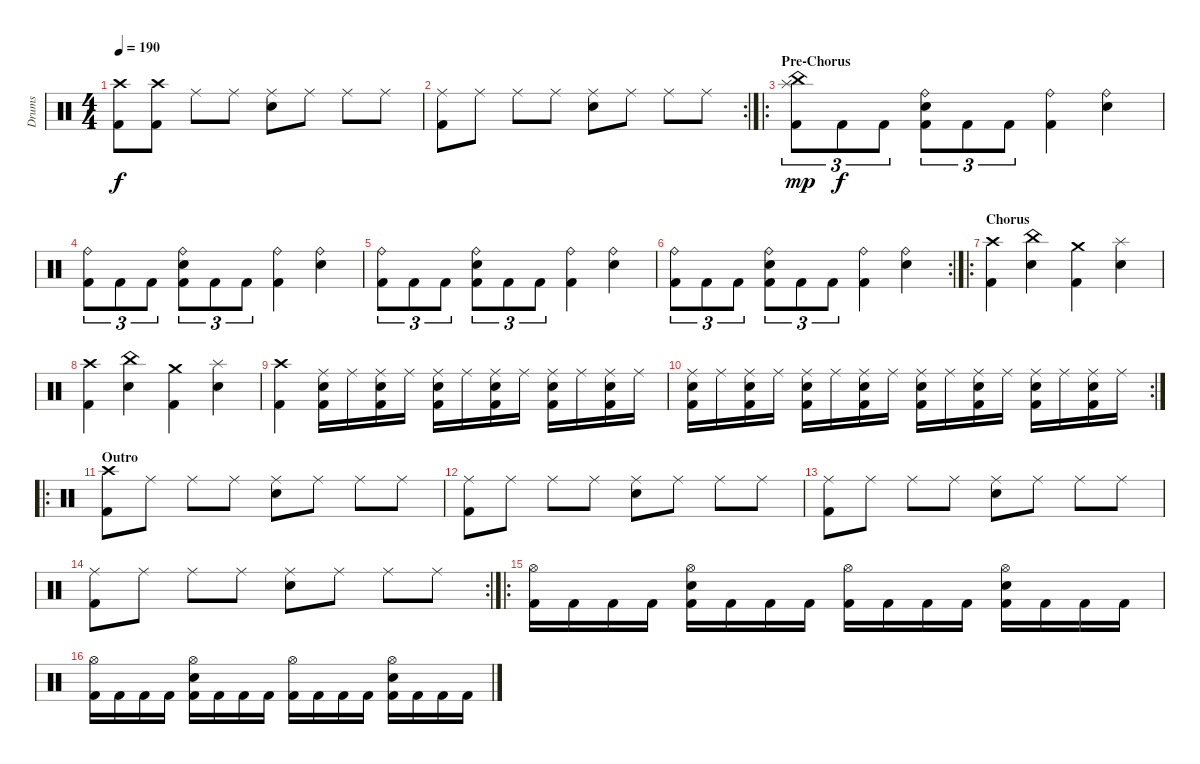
\track ("Drums" "Drums") {instrument percussion}
\staff {score}
\articulation defaults
\ts (4 4)
\tempo 190
\clef neutral
\ks c
("Crash high (hit)" "Kick (hit) 2").8{dy f} ("Crash high (hit)" "Kick (hit) 2").8 "Ride (middle)".8 "Ride (middle)".8 ("Ride (middle)" "Electric Snare (hit)").8 "Ride (middle)".8 "Ride (middle)".8 "Ride (middle)".8 |
\rc 2
("Ride (middle)" "Kick (hit) 2").8 "Ride (middle)".8 "Ride (middle)".8 "Ride (middle)".8 ("Ride (middle)" "Electric Snare (hit)").8 "Ride (middle)".8 "Ride (middle)".8 "Ride (middle)".8 |
\ro
\section ("" "Pre-Chorus")
("Kick (hit) 2" "China (hit)" "Splash (hit)").8{tu (3 2) dy mp} "Kick (hit) 2".8{tu (3 2) dy f} "Kick (hit) 2".8{tu (3 2)} ("Kick (hit) 2" "Ride (bell)" "Electric Snare (hit)").8{tu (3 2)} "Kick (hit) 2".8{tu (3 2)} "Kick (hit) 2".8{tu (3 2)} ("Ride (bell)" "Kick (hit) 2").4 ("Ride (bell)" "Electric Snare (hit)").4 |
("Kick (hit) 2" "Ride (bell)").8{tu (3 2)} "Kick (hit) 2".8{tu (3 2)} "Kick (hit) 2".8{tu (3 2)} ("Kick (hit) 2" "Ride (bell)" "Electric Snare (hit)").8{tu (3 2)} "Kick (hit) 2".8{tu (3 2)} "Kick (hit) 2".8{tu (3 2)} ("Ride (bell)" "Kick (hit) 2").4 ("Ride (bell)" "Electric Snare (hit)").4 |
("Kick (hit) 2" "Ride (bell)").8{tu (3 2)} "Kick (hit) 2".8{tu (3 2)} "Kick (hit) 2".8{tu (3 2)} ("Kick (hit) 2" "Ride (bell)" "Electric Snare (hit)").8{tu (3 2)} "Kick (hit) 2".8{tu (3 2)} "Kick (hit) 2".8{tu (3 2)} ("Ride (bell)" "Kick (hit) 2").4 ("Ride (bell)" "Electric Snare (hit)").4 |
\rc 2
("Kick (hit) 2" "Ride (bell)").8{tu (3 2)} "Kick (hit) 2".8{tu (3 2)} "Kick (hit) 2".8{tu (3 2)} ("Kick (hit) 2" "Ride (bell)" "Electric Snare (hit)").8{tu (3 2)} "Kick (hit) 2".8{tu (3 2)} "Kick (hit) 2".8{tu (3 2)} ("Ride (bell)" "Kick (hit) 2").4 ("Ride (bell)" "Electric Snare (hit)").4 |
\ro
\section ("" "Chorus")
("Crash high (hit)" "Kick (hit) 2").4 ("China (hit)" "Electric Snare (hit)").4 ("Crash medium (hit)" "Kick (hit) 2").4 ("Splash (hit)" "Electric Snare (hit)").4 |
("Crash high (hit)" "Kick (hit) 2").4 ("China (hit)" "Electric Snare (hit)").4 ("Crash medium (hit)" "Kick (hit) 2").4 ("Splash (hit)" "Electric Snare (hit)").4 |
("Crash high (hit)" "Kick (hit) 2").4 ("Ride (middle)" "Kick (hit) 2" "Electric Snare (hit)").16 "Ride (middle)".16 ("Ride (middle)" "Kick (hit) 2" "Electric Snare (hit)").16 "Ride (middle)".16 ("Ride (middle)" "Kick (hit) 2" "Electric Snare (hit)").16 "Ride (middle)".16 ("Ride (middle)" "Kick (hit) 2" "Electric Snare (hit)").16 "Ride (middle)".16 ("Ride (middle)" "Kick (hit) 2" "Electric Snare (hit)").16 "Ride (middle)".16 ("Ride (middle)" "Kick (hit) 2" "Electric Snare (hit)").16 "Ride (middle)".16 |
\rc 2
("Ride (middle)" "Kick (hit) 2" "Electric Snare (hit)").16 "Ride (middle)".16 ("Ride (middle)" "Kick (hit) 2" "Electric Snare (hit)").16 "Ride (middle)".16 ("Ride (middle)" "Kick (hit) 2" "Electric Snare (hit)").16 "Ride (middle)".16 ("Ride (middle)" "Kick (hit) 2" "Electric Snare (hit)").16 "Ride (middle)".16 ("Ride (middle)" "Kick (hit) 2" "Electric Snare (hit)").16 "Ride (middle)".16 ("Ride (middle)" "Kick (hit) 2" "Electric Snare (hit)").16 "Ride (middle)".16 ("Ride (middle)" "Kick (hit) 2" "Electric Snare (hit)").16 "Ride (middle)".16 ("Ride (middle)" "Kick (hit) 2" "Electric Snare (hit)").16 "Ride (middle)".16 |
\ro
\section ("" "Outro")
("Crash high (hit)" "Kick (hit) 2").8 "Ride (middle)".8 "Ride (middle)".8 "Ride (middle)".8 ("Ride (middle)" "Electric Snare (hit)").8 "Ride (middle)".8 "Ride (middle)".8 "Ride (middle)".8 |
("Ride (middle)" "Kick (hit) 2").8 "Ride (middle)".8 "Ride (middle)".8 "Ride (middle)".8 ("Ride (middle)" "Electric Snare (hit)").8 "Ride (middle)".8 "Ride (middle)".8 "Ride (middle)".8 |
("Ride (middle)" "Kick (hit) 2").8 "Ride (middle)".8 "Ride (middle)".8 "Ride (middle)".8 ("Ride (middle)" "Electric Snare (hit)").8 "Ride (middle)".8 "Ride (middle)".8 "Ride (middle)".8 |
\rc 2
("Ride (middle)" "Kick (hit) 2").8 "Ride (middle)".8 "Ride (middle)".8 "Ride (middle)".8 ("Ride (middle)" "Electric Snare (hit)").8 "Ride (middle)".8 "Ride (middle)".8 "Ride (middle)".8 |
\ro
("Kick (hit) 2" "Hi-Hat (open)").16 "Kick (hit) 2".16 "Kick (hit) 2".16 "Kick (hit) 2".16 ("Kick (hit) 2" "Hi-Hat (open)" "Electric Snare (hit)").16 "Kick (hit) 2".16 "Kick (hit) 2".16 "Kick (hit) 2".16 ("Kick (hit) 2" "Hi-Hat (open)").16 "Kick (hit) 2".16 "Kick (hit) 2".16 "Kick (hit) 2".16 ("Kick (hit) 2" "Hi-Hat (open)" "Electric Snare (hit)").16 "Kick (hit) 2".16 "Kick (hit) 2".16 "Kick (hit) 2".16 |
("Kick (hit) 2" "Hi-Hat (open)").16 "Kick (hit) 2".16 "Kick (hit) 2".16 "Kick (hit) 2".16 ("Kick (hit) 2" "Hi-Hat (open)" "Electric Snare (hit)").16 "Kick (hit) 2".16 "Kick (hit) 2".16 "Kick (hit) 2".16 ("Kick (hit) 2" "Hi-Hat (open)").16 "Kick (hit) 2".16 "Kick (hit) 2".16 "Kick (hit) 2".16 ("Kick (hit) 2" "Hi-Hat (open)" "Electric Snare (hit)").16 "Kick (hit) 2".16 "Kick (hit) 2".16 "Kick (hit) 2".16
